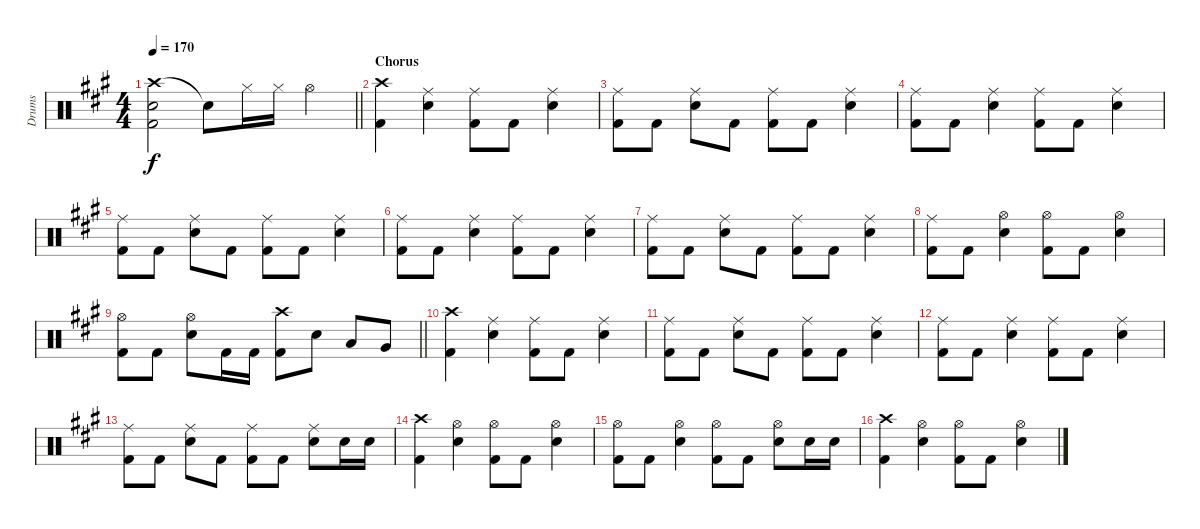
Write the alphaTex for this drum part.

\track ("Drums" "Drums") {instrument percussion}
\staff {score}
\articulation defaults
\ts (4 4)
\tempo 170
\clef neutral
\barLineRight lightlight
\ks f#minor
("Crash high (hit)" "Snare (hit) 2" "Kick (hit) 2").2{dy f} "Snare (hit)"{t}.8 "Hi-Hat (closed)".16 "Hi-Hat (closed)".16 "Hi-Hat (open)".4 |
\section ("" "Chorus")
("Crash high (hit)" "Kick (hit) 2").4 ("Ride (middle)" "Snare (hit) 2").4 ("Ride (middle)" "Kick (hit) 2").8 "Kick (hit) 2".8 ("Ride (middle)" "Snare (hit) 2").4 |
("Ride (middle)" "Kick (hit) 2").8 "Kick (hit) 2".8 ("Ride (middle)" "Snare (hit) 2").8 "Kick (hit) 2".8 ("Ride (middle)" "Kick (hit) 2").8 "Kick (hit) 2".8 ("Ride (middle)" "Snare (hit) 2").4 |
("Ride (middle)" "Kick (hit) 2").8 "Kick (hit) 2".8 ("Ride (middle)" "Snare (hit) 2").4 ("Ride (middle)" "Kick (hit) 2").8 "Kick (hit) 2".8 ("Ride (middle)" "Snare (hit) 2").4 |
("Ride (middle)" "Kick (hit) 2").8 "Kick (hit) 2".8 ("Ride (middle)" "Snare (hit) 2").8 "Kick (hit) 2".8 ("Ride (middle)" "Kick (hit) 2").8 "Kick (hit) 2".8 ("Ride (middle)" "Snare (hit) 2").4 |
("Ride (middle)" "Kick (hit) 2").8 "Kick (hit) 2".8 ("Ride (middle)" "Snare (hit) 2").4 ("Ride (middle)" "Kick (hit) 2").8 "Kick (hit) 2".8 ("Ride (middle)" "Snare (hit) 2").4 |
("Ride (middle)" "Kick (hit) 2").8 "Kick (hit) 2".8 ("Ride (middle)" "Snare (hit) 2").8 "Kick (hit) 2".8 ("Ride (middle)" "Kick (hit) 2").8 "Kick (hit) 2".8 ("Ride (middle)" "Snare (hit) 2").4 |
("Ride (middle)" "Kick (hit) 2").8 "Kick (hit) 2".8 ("Hi-Hat (open)" "Snare (hit) 2").4 ("Hi-Hat (open)" "Kick (hit) 2").8 "Kick (hit) 2".8 ("Hi-Hat (open)" "Snare (hit) 2").4 |
\barLineRight lightlight
("Hi-Hat (open)" "Kick (hit) 2").8 "Kick (hit) 2".8 ("Hi-Hat (open)" "Snare (hit) 2").8 "Kick (hit) 2".16 "Kick (hit) 2".16 ("Crash high (hit)" "Kick (hit) 2").8 "Snare (hit) 2".8 "Low Tom (hit)".8 "Very Low Tom (hit)".8 |
("Crash high (hit)" "Kick (hit) 2").4 ("Ride (middle)" "Snare (hit) 2").4 ("Ride (middle)" "Kick (hit) 2").8 "Kick (hit) 2".8 ("Ride (middle)" "Snare (hit) 2").4 |
("Ride (middle)" "Kick (hit) 2").8 "Kick (hit) 2".8 ("Ride (middle)" "Snare (hit) 2").8 "Kick (hit) 2".8 ("Ride (middle)" "Kick (hit) 2").8 "Kick (hit) 2".8 ("Ride (middle)" "Snare (hit) 2").4 |
("Ride (middle)" "Kick (hit) 2").8 "Kick (hit) 2".8 ("Ride (middle)" "Snare (hit) 2").4 ("Ride (middle)" "Kick (hit) 2").8 "Kick (hit) 2".8 ("Ride (middle)" "Snare (hit) 2").4 |
("Ride (middle)" "Kick (hit) 2").8 "Kick (hit) 2".8 ("Ride (middle)" "Snare (hit) 2").8 "Kick (hit) 2".8 ("Ride (middle)" "Kick (hit) 2").8 "Kick (hit) 2".8 ("Ride (middle)" "Snare (hit) 2").8 "Snare (hit) 2".16 "Snare (hit) 2".16 |
("Crash high (hit)" "Kick (hit) 2").4 ("Hi-Hat (open)" "Snare (hit) 2").4 ("Hi-Hat (open)" "Kick (hit) 2").8 "Kick (hit) 2".8 ("Hi-Hat (open)" "Snare (hit) 2").4 |
("Hi-Hat (open)" "Kick (hit) 2").8 "Kick (hit) 2".8 ("Hi-Hat (open)" "Snare (hit) 2").4 ("Hi-Hat (open)" "Kick (hit) 2").8 "Kick (hit) 2".8 ("Hi-Hat (open)" "Snare (hit) 2").8 "Snare (hit) 2".16 "Snare (hit) 2".16 |
("Crash high (hit)" "Kick (hit) 2").4 ("Hi-Hat (open)" "Snare (hit) 2").4 ("Hi-Hat (open)" "Kick (hit) 2").8 "Kick (hit) 2".8 ("Hi-Hat (open)" "Snare (hit) 2").4
